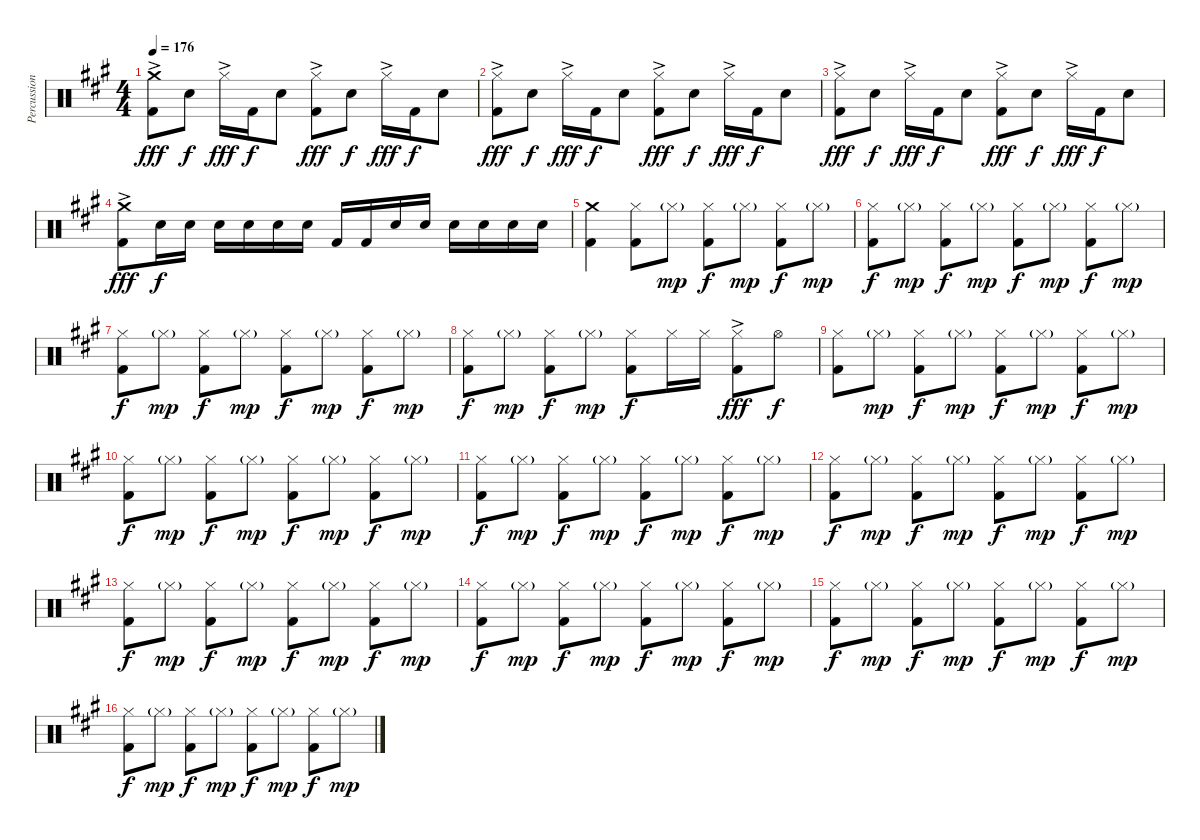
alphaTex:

\track ("Percussion" "Percussion") {instrument percussion}
\staff {score}
\articulation defaults
\ts (4 4)
\tempo 176
\clef neutral
\ks a
("Crash medium (hit)"{ac} "Kick (hit) 2").8{dy fff} "Snare (hit) 2".8{dy f} "Hi-Hat (closed)"{ac}.16{dy fff} "Kick (hit) 2".16{dy f} "Snare (hit) 2".8 ("Hi-Hat (closed)"{ac} "Kick (hit) 2").8{dy fff} "Snare (hit) 2".8{dy f} "Hi-Hat (closed)"{ac}.16{dy fff} "Kick (hit) 2".16{dy f} "Snare (hit) 2".8 |
("Hi-Hat (closed)"{ac} "Kick (hit) 2").8{dy fff} "Snare (hit) 2".8{dy f} "Hi-Hat (closed)"{ac}.16{dy fff} "Kick (hit) 2".16{dy f} "Snare (hit) 2".8 ("Hi-Hat (closed)"{ac} "Kick (hit) 2").8{dy fff} "Snare (hit) 2".8{dy f} "Hi-Hat (closed)"{ac}.16{dy fff} "Kick (hit) 2".16{dy f} "Snare (hit) 2".8 |
("Hi-Hat (closed)"{ac} "Kick (hit) 2").8{dy fff} "Snare (hit) 2".8{dy f} "Hi-Hat (closed)"{ac}.16{dy fff} "Kick (hit) 2".16{dy f} "Snare (hit) 2".8 ("Hi-Hat (closed)"{ac} "Kick (hit) 2").8{dy fff} "Snare (hit) 2".8{dy f} "Hi-Hat (closed)"{ac}.16{dy fff} "Kick (hit) 2".16{dy f} "Snare (hit) 2".8 |
("Crash medium (hit)"{ac} "Kick (hit) 2").8{dy fff} "Snare (hit) 2".16{dy f} "Snare (hit) 2".16 "Snare (hit) 2".16 "Snare (hit) 2".16 "Snare (hit) 2".16 "Snare (hit) 2".16 "Kick (hit) 2".16 "Kick (hit) 2".16 "Snare (hit) 2".16 "Snare (hit) 2".16 "Snare (hit) 2".16 "Snare (hit) 2".16 "Snare (hit) 2".16 "Snare (hit) 2".16 |
("Crash medium (hit)" "Kick (hit) 2").4 ("Hi-Hat (closed)" "Kick (hit) 2").8 "Hi-Hat (closed)"{g}.8{dy mp} ("Hi-Hat (closed)" "Kick (hit) 2").8{dy f} "Hi-Hat (closed)"{g}.8{dy mp} ("Hi-Hat (closed)" "Kick (hit) 2").8{dy f} "Hi-Hat (closed)"{g}.8{dy mp} |
("Hi-Hat (closed)" "Kick (hit) 2").8{dy f} "Hi-Hat (closed)"{g}.8{dy mp} ("Hi-Hat (closed)" "Kick (hit) 2").8{dy f} "Hi-Hat (closed)"{g}.8{dy mp} ("Hi-Hat (closed)" "Kick (hit) 2").8{dy f} "Hi-Hat (closed)"{g}.8{dy mp} ("Hi-Hat (closed)" "Kick (hit) 2").8{dy f} "Hi-Hat (closed)"{g}.8{dy mp} |
("Hi-Hat (closed)" "Kick (hit) 2").8{dy f} "Hi-Hat (closed)"{g}.8{dy mp} ("Hi-Hat (closed)" "Kick (hit) 2").8{dy f} "Hi-Hat (closed)"{g}.8{dy mp} ("Hi-Hat (closed)" "Kick (hit) 2").8{dy f} "Hi-Hat (closed)"{g}.8{dy mp} ("Hi-Hat (closed)" "Kick (hit) 2").8{dy f} "Hi-Hat (closed)"{g}.8{dy mp} |
("Hi-Hat (closed)" "Kick (hit) 2").8{dy f} "Hi-Hat (closed)"{g}.8{dy mp} ("Hi-Hat (closed)" "Kick (hit) 2").8{dy f} "Hi-Hat (closed)"{g}.8{dy mp} ("Hi-Hat (closed)" "Kick (hit) 2").8{dy f} "Hi-Hat (closed)".16 "Hi-Hat (closed)".16 ("Hi-Hat (closed)"{ac} "Kick (hit) 2").8{dy fff} "Hi-Hat (open)".8{dy f} |
("Hi-Hat (closed)" "Kick (hit) 2").8 "Hi-Hat (closed)"{g}.8{dy mp} ("Hi-Hat (closed)" "Kick (hit) 2").8{dy f} "Hi-Hat (closed)"{g}.8{dy mp} ("Hi-Hat (closed)" "Kick (hit) 2").8{dy f} "Hi-Hat (closed)"{g}.8{dy mp} ("Hi-Hat (closed)" "Kick (hit) 2").8{dy f} "Hi-Hat (closed)"{g}.8{dy mp} |
("Hi-Hat (closed)" "Kick (hit) 2").8{dy f} "Hi-Hat (closed)"{g}.8{dy mp} ("Hi-Hat (closed)" "Kick (hit) 2").8{dy f} "Hi-Hat (closed)"{g}.8{dy mp} ("Hi-Hat (closed)" "Kick (hit) 2").8{dy f} "Hi-Hat (closed)"{g}.8{dy mp} ("Hi-Hat (closed)" "Kick (hit) 2").8{dy f} "Hi-Hat (closed)"{g}.8{dy mp} |
("Hi-Hat (closed)" "Kick (hit) 2").8{dy f} "Hi-Hat (closed)"{g}.8{dy mp} ("Hi-Hat (closed)" "Kick (hit) 2").8{dy f} "Hi-Hat (closed)"{g}.8{dy mp} ("Hi-Hat (closed)" "Kick (hit) 2").8{dy f} "Hi-Hat (closed)"{g}.8{dy mp} ("Hi-Hat (closed)" "Kick (hit) 2").8{dy f} "Hi-Hat (closed)"{g}.8{dy mp} |
("Hi-Hat (closed)" "Kick (hit) 2").8{dy f} "Hi-Hat (closed)"{g}.8{dy mp} ("Hi-Hat (closed)" "Kick (hit) 2").8{dy f} "Hi-Hat (closed)"{g}.8{dy mp} ("Hi-Hat (closed)" "Kick (hit) 2").8{dy f} "Hi-Hat (closed)"{g}.8{dy mp} ("Hi-Hat (closed)" "Kick (hit) 2").8{dy f} "Hi-Hat (closed)"{g}.8{dy mp} |
("Hi-Hat (closed)" "Kick (hit) 2").8{dy f} "Hi-Hat (closed)"{g}.8{dy mp} ("Hi-Hat (closed)" "Kick (hit) 2").8{dy f} "Hi-Hat (closed)"{g}.8{dy mp} ("Hi-Hat (closed)" "Kick (hit) 2").8{dy f} "Hi-Hat (closed)"{g}.8{dy mp} ("Hi-Hat (closed)" "Kick (hit) 2").8{dy f} "Hi-Hat (closed)"{g}.8{dy mp} |
("Hi-Hat (closed)" "Kick (hit) 2").8{dy f} "Hi-Hat (closed)"{g}.8{dy mp} ("Hi-Hat (closed)" "Kick (hit) 2").8{dy f} "Hi-Hat (closed)"{g}.8{dy mp} ("Hi-Hat (closed)" "Kick (hit) 2").8{dy f} "Hi-Hat (closed)"{g}.8{dy mp} ("Hi-Hat (closed)" "Kick (hit) 2").8{dy f} "Hi-Hat (closed)"{g}.8{dy mp} |
("Hi-Hat (closed)" "Kick (hit) 2").8{dy f} "Hi-Hat (closed)"{g}.8{dy mp} ("Hi-Hat (closed)" "Kick (hit) 2").8{dy f} "Hi-Hat (closed)"{g}.8{dy mp} ("Hi-Hat (closed)" "Kick (hit) 2").8{dy f} "Hi-Hat (closed)"{g}.8{dy mp} ("Hi-Hat (closed)" "Kick (hit) 2").8{dy f} "Hi-Hat (closed)"{g}.8{dy mp} |
("Hi-Hat (closed)" "Kick (hit) 2").8{dy f} "Hi-Hat (closed)"{g}.8{dy mp} ("Hi-Hat (closed)" "Kick (hit) 2").8{dy f} "Hi-Hat (closed)"{g}.8{dy mp} ("Hi-Hat (closed)" "Kick (hit) 2").8{dy f} "Hi-Hat (closed)"{g}.8{dy mp} ("Hi-Hat (closed)" "Kick (hit) 2").8{dy f} "Hi-Hat (closed)"{g}.8{dy mp}
